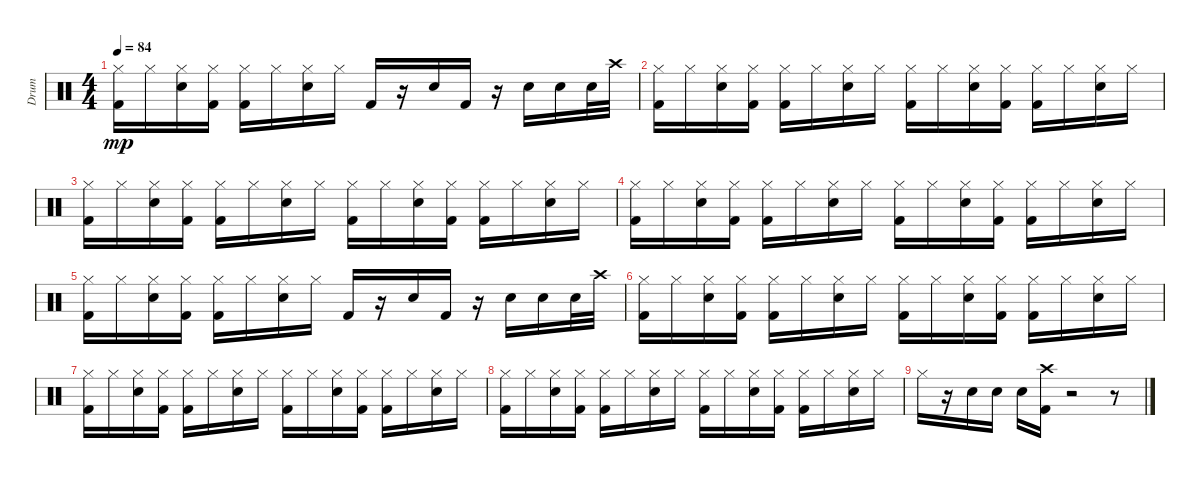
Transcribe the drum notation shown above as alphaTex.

\track ("Drum" "Drum") {instrument percussion}
\staff {score}
\articulation defaults
\ts (4 4)
\tempo 84
\clef neutral
\ks c
("Kick (hit) 2" "Hi-Hat (closed)").16{dy mp} "Hi-Hat (closed)".16 ("Snare (hit) 2" "Hi-Hat (closed)").16 ("Kick (hit) 2" "Hi-Hat (closed)").16 ("Kick (hit) 2" "Hi-Hat (closed)").16 "Hi-Hat (closed)".16 ("Snare (hit) 2" "Hi-Hat (closed)").16 "Hi-Hat (closed)".16 "Kick (hit) 2".16 r.16 "Snare (hit) 2".16 "Kick (hit) 2".16 r.16 "Snare (hit) 2".16 "Snare (hit) 2".16 "Snare (hit) 2".32 "Crash high (hit)".32 |
("Kick (hit) 2" "Hi-Hat (closed)").16 "Hi-Hat (closed)".16 ("Snare (hit) 2" "Hi-Hat (closed)").16 ("Kick (hit) 2" "Hi-Hat (closed)").16 ("Kick (hit) 2" "Hi-Hat (closed)").16 "Hi-Hat (closed)".16 ("Snare (hit) 2" "Hi-Hat (closed)").16 "Hi-Hat (closed)".16 ("Kick (hit) 2" "Hi-Hat (closed)").16 "Hi-Hat (closed)".16 ("Snare (hit) 2" "Hi-Hat (closed)").16 ("Kick (hit) 2" "Hi-Hat (closed)").16 ("Kick (hit) 2" "Hi-Hat (closed)").16 "Hi-Hat (closed)".16 ("Snare (hit) 2" "Hi-Hat (closed)").16 "Hi-Hat (closed)".16 |
("Kick (hit) 2" "Hi-Hat (closed)").16 "Hi-Hat (closed)".16 ("Snare (hit) 2" "Hi-Hat (closed)").16 ("Kick (hit) 2" "Hi-Hat (closed)").16 ("Kick (hit) 2" "Hi-Hat (closed)").16 "Hi-Hat (closed)".16 ("Snare (hit) 2" "Hi-Hat (closed)").16 "Hi-Hat (closed)".16 ("Kick (hit) 2" "Hi-Hat (closed)").16 "Hi-Hat (closed)".16 ("Snare (hit) 2" "Hi-Hat (closed)").16 ("Kick (hit) 2" "Hi-Hat (closed)").16 ("Kick (hit) 2" "Hi-Hat (closed)").16 "Hi-Hat (closed)".16 ("Snare (hit) 2" "Hi-Hat (closed)").16 "Hi-Hat (closed)".16 |
("Kick (hit) 2" "Hi-Hat (closed)").16 "Hi-Hat (closed)".16 ("Snare (hit) 2" "Hi-Hat (closed)").16 ("Kick (hit) 2" "Hi-Hat (closed)").16 ("Kick (hit) 2" "Hi-Hat (closed)").16 "Hi-Hat (closed)".16 ("Snare (hit) 2" "Hi-Hat (closed)").16 "Hi-Hat (closed)".16 ("Kick (hit) 2" "Hi-Hat (closed)").16 "Hi-Hat (closed)".16 ("Snare (hit) 2" "Hi-Hat (closed)").16 ("Kick (hit) 2" "Hi-Hat (closed)").16 ("Kick (hit) 2" "Hi-Hat (closed)").16 "Hi-Hat (closed)".16 ("Snare (hit) 2" "Hi-Hat (closed)").16 "Hi-Hat (closed)".16 |
("Kick (hit) 2" "Hi-Hat (closed)").16 "Hi-Hat (closed)".16 ("Snare (hit) 2" "Hi-Hat (closed)").16 ("Kick (hit) 2" "Hi-Hat (closed)").16 ("Kick (hit) 2" "Hi-Hat (closed)").16 "Hi-Hat (closed)".16 ("Snare (hit) 2" "Hi-Hat (closed)").16 "Hi-Hat (closed)".16 "Kick (hit) 2".16 r.16 "Snare (hit) 2".16 "Kick (hit) 2".16 r.16 "Snare (hit) 2".16 "Snare (hit) 2".16 "Snare (hit) 2".32 "Crash high (hit)".32 |
("Kick (hit) 2" "Hi-Hat (closed)").16 "Hi-Hat (closed)".16 ("Snare (hit) 2" "Hi-Hat (closed)").16 ("Kick (hit) 2" "Hi-Hat (closed)").16 ("Kick (hit) 2" "Hi-Hat (closed)").16 "Hi-Hat (closed)".16 ("Snare (hit) 2" "Hi-Hat (closed)").16 "Hi-Hat (closed)".16 ("Kick (hit) 2" "Hi-Hat (closed)").16 "Hi-Hat (closed)".16 ("Snare (hit) 2" "Hi-Hat (closed)").16 ("Kick (hit) 2" "Hi-Hat (closed)").16 ("Kick (hit) 2" "Hi-Hat (closed)").16 "Hi-Hat (closed)".16 ("Snare (hit) 2" "Hi-Hat (closed)").16 "Hi-Hat (closed)".16 |
("Kick (hit) 2" "Hi-Hat (closed)").16 "Hi-Hat (closed)".16 ("Snare (hit) 2" "Hi-Hat (closed)").16 ("Kick (hit) 2" "Hi-Hat (closed)").16 ("Kick (hit) 2" "Hi-Hat (closed)").16 "Hi-Hat (closed)".16 ("Snare (hit) 2" "Hi-Hat (closed)").16 "Hi-Hat (closed)".16 ("Kick (hit) 2" "Hi-Hat (closed)").16 "Hi-Hat (closed)".16 ("Snare (hit) 2" "Hi-Hat (closed)").16 ("Kick (hit) 2" "Hi-Hat (closed)").16 ("Kick (hit) 2" "Hi-Hat (closed)").16 "Hi-Hat (closed)".16 ("Snare (hit) 2" "Hi-Hat (closed)").16 "Hi-Hat (closed)".16 |
("Kick (hit) 2" "Hi-Hat (closed)").16 "Hi-Hat (closed)".16 ("Snare (hit) 2" "Hi-Hat (closed)").16 ("Kick (hit) 2" "Hi-Hat (closed)").16 ("Kick (hit) 2" "Hi-Hat (closed)").16 "Hi-Hat (closed)".16 ("Snare (hit) 2" "Hi-Hat (closed)").16 "Hi-Hat (closed)".16 ("Kick (hit) 2" "Hi-Hat (closed)").16 "Hi-Hat (closed)".16 ("Snare (hit) 2" "Hi-Hat (closed)").16 ("Kick (hit) 2" "Hi-Hat (closed)").16 ("Kick (hit) 2" "Hi-Hat (closed)").16 "Hi-Hat (closed)".16 ("Snare (hit) 2" "Hi-Hat (closed)").16 "Hi-Hat (closed)".16 |
"Hi-Hat (closed)".16 r.16 "Electric Snare (hit)".16 "Electric Snare (hit)".16 "Electric Snare (hit)".16 ("Kick (hit) 2" "Crash high (hit)").16 r.2 r.8
